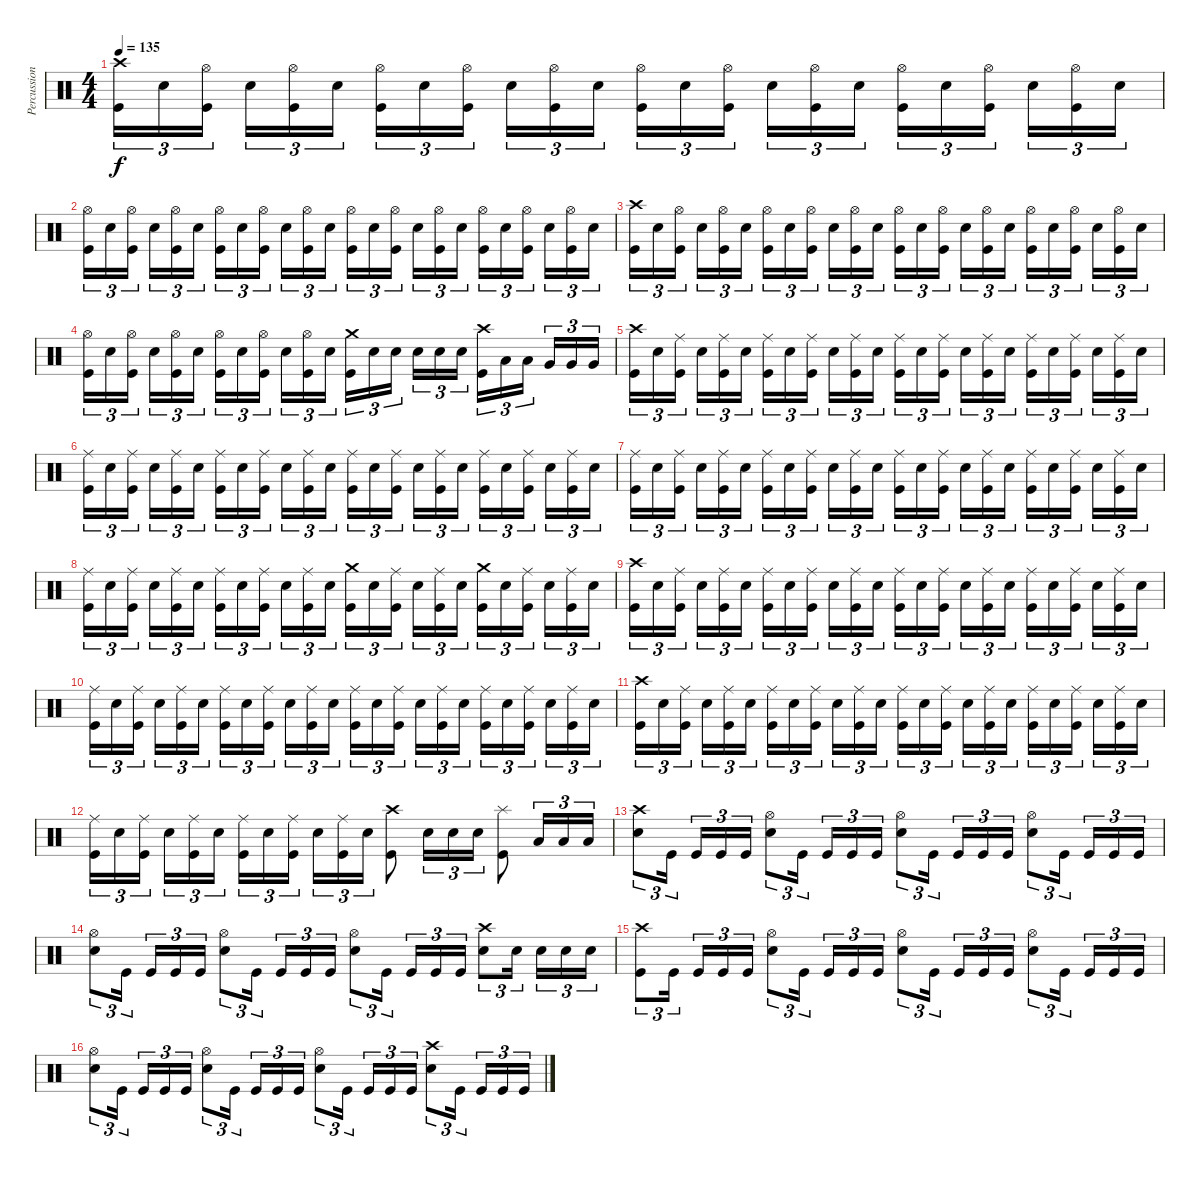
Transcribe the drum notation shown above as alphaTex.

\track ("Percussions" "Percussion") {instrument percussion}
\staff {score}
\articulation defaults
\ts (4 4)
\tempo 135
\clef neutral
\ks c
("Crash high (hit)" "Kick (hit)").16{tu (3 2) dy f} "Electric Snare (hit)".16{tu (3 2)} ("Hi-Hat (open)" "Kick (hit)").16{tu (3 2) beam splitsecondary} "Electric Snare (hit)".16{tu (3 2)} ("Hi-Hat (open)" "Kick (hit)").16{tu (3 2)} "Electric Snare (hit)".16{tu (3 2)} ("Hi-Hat (open)" "Kick (hit)").16{tu (3 2)} "Electric Snare (hit)".16{tu (3 2)} ("Hi-Hat (open)" "Kick (hit)").16{tu (3 2) beam splitsecondary} "Electric Snare (hit)".16{tu (3 2)} ("Hi-Hat (open)" "Kick (hit)").16{tu (3 2)} "Electric Snare (hit)".16{tu (3 2)} ("Hi-Hat (open)" "Kick (hit)").16{tu (3 2)} "Electric Snare (hit)".16{tu (3 2)} ("Hi-Hat (open)" "Kick (hit)").16{tu (3 2) beam splitsecondary} "Electric Snare (hit)".16{tu (3 2)} ("Hi-Hat (open)" "Kick (hit)").16{tu (3 2)} "Electric Snare (hit)".16{tu (3 2)} ("Hi-Hat (open)" "Kick (hit)").16{tu (3 2)} "Electric Snare (hit)".16{tu (3 2)} ("Hi-Hat (open)" "Kick (hit)").16{tu (3 2) beam splitsecondary} "Electric Snare (hit)".16{tu (3 2)} ("Hi-Hat (open)" "Kick (hit)").16{tu (3 2)} "Electric Snare (hit)".16{tu (3 2)} |
("Hi-Hat (open)" "Kick (hit)").16{tu (3 2)} "Electric Snare (hit)".16{tu (3 2)} ("Hi-Hat (open)" "Kick (hit)").16{tu (3 2) beam splitsecondary} "Electric Snare (hit)".16{tu (3 2)} ("Hi-Hat (open)" "Kick (hit)").16{tu (3 2)} "Electric Snare (hit)".16{tu (3 2)} ("Hi-Hat (open)" "Kick (hit)").16{tu (3 2)} "Electric Snare (hit)".16{tu (3 2)} ("Hi-Hat (open)" "Kick (hit)").16{tu (3 2) beam splitsecondary} "Electric Snare (hit)".16{tu (3 2)} ("Hi-Hat (open)" "Kick (hit)").16{tu (3 2)} "Electric Snare (hit)".16{tu (3 2)} ("Hi-Hat (open)" "Kick (hit)").16{tu (3 2)} "Electric Snare (hit)".16{tu (3 2)} ("Hi-Hat (open)" "Kick (hit)").16{tu (3 2) beam splitsecondary} "Electric Snare (hit)".16{tu (3 2)} ("Hi-Hat (open)" "Kick (hit)").16{tu (3 2)} "Electric Snare (hit)".16{tu (3 2)} ("Hi-Hat (open)" "Kick (hit)").16{tu (3 2)} "Electric Snare (hit)".16{tu (3 2)} ("Hi-Hat (open)" "Kick (hit)").16{tu (3 2) beam splitsecondary} "Electric Snare (hit)".16{tu (3 2)} ("Hi-Hat (open)" "Kick (hit)").16{tu (3 2)} "Electric Snare (hit)".16{tu (3 2)} |
("Crash high (hit)" "Kick (hit)").16{tu (3 2)} "Electric Snare (hit)".16{tu (3 2)} ("Hi-Hat (open)" "Kick (hit)").16{tu (3 2) beam splitsecondary} "Electric Snare (hit)".16{tu (3 2)} ("Hi-Hat (open)" "Kick (hit)").16{tu (3 2)} "Electric Snare (hit)".16{tu (3 2)} ("Hi-Hat (open)" "Kick (hit)").16{tu (3 2)} "Electric Snare (hit)".16{tu (3 2)} ("Hi-Hat (open)" "Kick (hit)").16{tu (3 2) beam splitsecondary} "Electric Snare (hit)".16{tu (3 2)} ("Hi-Hat (open)" "Kick (hit)").16{tu (3 2)} "Electric Snare (hit)".16{tu (3 2)} ("Hi-Hat (open)" "Kick (hit)").16{tu (3 2)} "Electric Snare (hit)".16{tu (3 2)} ("Hi-Hat (open)" "Kick (hit)").16{tu (3 2) beam splitsecondary} "Electric Snare (hit)".16{tu (3 2)} ("Hi-Hat (open)" "Kick (hit)").16{tu (3 2)} "Electric Snare (hit)".16{tu (3 2)} ("Hi-Hat (open)" "Kick (hit)").16{tu (3 2)} "Electric Snare (hit)".16{tu (3 2)} ("Hi-Hat (open)" "Kick (hit)").16{tu (3 2) beam splitsecondary} "Electric Snare (hit)".16{tu (3 2)} ("Hi-Hat (open)" "Kick (hit)").16{tu (3 2)} "Electric Snare (hit)".16{tu (3 2)} |
("Hi-Hat (open)" "Kick (hit)").16{tu (3 2)} "Electric Snare (hit)".16{tu (3 2)} ("Hi-Hat (open)" "Kick (hit)").16{tu (3 2) beam splitsecondary} "Electric Snare (hit)".16{tu (3 2)} ("Hi-Hat (open)" "Kick (hit)").16{tu (3 2)} "Electric Snare (hit)".16{tu (3 2)} ("Hi-Hat (open)" "Kick (hit)").16{tu (3 2)} "Electric Snare (hit)".16{tu (3 2)} ("Hi-Hat (open)" "Kick (hit)").16{tu (3 2) beam splitsecondary} "Electric Snare (hit)".16{tu (3 2)} ("Hi-Hat (open)" "Kick (hit)").16{tu (3 2)} "Electric Snare (hit)".16{tu (3 2)} ("Crash medium (hit)" "Kick (hit)").16{tu (3 2)} "Electric Snare (hit)".16{tu (3 2)} "Electric Snare (hit)".16{tu (3 2) beam splitsecondary} "Electric Snare (hit)".16{tu (3 2)} "Electric Snare (hit)".16{tu (3 2)} "Electric Snare (hit)".16{tu (3 2)} ("Crash high (hit)" "Kick (hit)").16{tu (3 2)} "Low Tom (hit)".16{tu (3 2)} "Low Tom (hit)".16{tu (3 2) beam splitsecondary} "Very Low Tom (hit)".16{tu (3 2)} "Very Low Tom (hit)".16{tu (3 2)} "Very Low Tom (hit)".16{tu (3 2)} |
("Crash high (hit)" "Kick (hit)").16{tu (3 2)} "Electric Snare (hit)".16{tu (3 2)} ("Ride (middle)" "Kick (hit)").16{tu (3 2) beam splitsecondary} "Electric Snare (hit)".16{tu (3 2)} ("Ride (middle)" "Kick (hit)").16{tu (3 2)} "Electric Snare (hit)".16{tu (3 2)} ("Ride (middle)" "Kick (hit)").16{tu (3 2)} "Electric Snare (hit)".16{tu (3 2)} ("Ride (middle)" "Kick (hit)").16{tu (3 2) beam splitsecondary} "Electric Snare (hit)".16{tu (3 2)} ("Ride (middle)" "Kick (hit)").16{tu (3 2)} "Electric Snare (hit)".16{tu (3 2)} ("Ride (middle)" "Kick (hit)").16{tu (3 2)} "Electric Snare (hit)".16{tu (3 2)} ("Ride (middle)" "Kick (hit)").16{tu (3 2) beam splitsecondary} "Electric Snare (hit)".16{tu (3 2)} ("Ride (middle)" "Kick (hit)").16{tu (3 2)} "Electric Snare (hit)".16{tu (3 2)} ("Ride (middle)" "Kick (hit)").16{tu (3 2)} "Electric Snare (hit)".16{tu (3 2)} ("Ride (middle)" "Kick (hit)").16{tu (3 2) beam splitsecondary} "Electric Snare (hit)".16{tu (3 2)} ("Ride (middle)" "Kick (hit)").16{tu (3 2)} "Electric Snare (hit)".16{tu (3 2)} |
("Ride (middle)" "Kick (hit)").16{tu (3 2)} "Electric Snare (hit)".16{tu (3 2)} ("Ride (middle)" "Kick (hit)").16{tu (3 2) beam splitsecondary} "Electric Snare (hit)".16{tu (3 2)} ("Ride (middle)" "Kick (hit)").16{tu (3 2)} "Electric Snare (hit)".16{tu (3 2)} ("Ride (middle)" "Kick (hit)").16{tu (3 2)} "Electric Snare (hit)".16{tu (3 2)} ("Ride (middle)" "Kick (hit)").16{tu (3 2) beam splitsecondary} "Electric Snare (hit)".16{tu (3 2)} ("Ride (middle)" "Kick (hit)").16{tu (3 2)} "Electric Snare (hit)".16{tu (3 2)} ("Ride (middle)" "Kick (hit)").16{tu (3 2)} "Electric Snare (hit)".16{tu (3 2)} ("Ride (middle)" "Kick (hit)").16{tu (3 2) beam splitsecondary} "Electric Snare (hit)".16{tu (3 2)} ("Ride (middle)" "Kick (hit)").16{tu (3 2)} "Electric Snare (hit)".16{tu (3 2)} ("Ride (middle)" "Kick (hit)").16{tu (3 2)} "Electric Snare (hit)".16{tu (3 2)} ("Ride (middle)" "Kick (hit)").16{tu (3 2) beam splitsecondary} "Electric Snare (hit)".16{tu (3 2)} ("Ride (middle)" "Kick (hit)").16{tu (3 2)} "Electric Snare (hit)".16{tu (3 2)} |
("Ride (middle)" "Kick (hit)").16{tu (3 2)} "Electric Snare (hit)".16{tu (3 2)} ("Ride (middle)" "Kick (hit)").16{tu (3 2) beam splitsecondary} "Electric Snare (hit)".16{tu (3 2)} ("Ride (middle)" "Kick (hit)").16{tu (3 2)} "Electric Snare (hit)".16{tu (3 2)} ("Ride (middle)" "Kick (hit)").16{tu (3 2)} "Electric Snare (hit)".16{tu (3 2)} ("Ride (middle)" "Kick (hit)").16{tu (3 2) beam splitsecondary} "Electric Snare (hit)".16{tu (3 2)} ("Ride (middle)" "Kick (hit)").16{tu (3 2)} "Electric Snare (hit)".16{tu (3 2)} ("Ride (middle)" "Kick (hit)").16{tu (3 2)} "Electric Snare (hit)".16{tu (3 2)} ("Ride (middle)" "Kick (hit)").16{tu (3 2) beam splitsecondary} "Electric Snare (hit)".16{tu (3 2)} ("Ride (middle)" "Kick (hit)").16{tu (3 2)} "Electric Snare (hit)".16{tu (3 2)} ("Ride (middle)" "Kick (hit)").16{tu (3 2)} "Electric Snare (hit)".16{tu (3 2)} ("Ride (middle)" "Kick (hit)").16{tu (3 2) beam splitsecondary} "Electric Snare (hit)".16{tu (3 2)} ("Ride (middle)" "Kick (hit)").16{tu (3 2)} "Electric Snare (hit)".16{tu (3 2)} |
("Ride (middle)" "Kick (hit)").16{tu (3 2)} "Electric Snare (hit)".16{tu (3 2)} ("Ride (middle)" "Kick (hit)").16{tu (3 2) beam splitsecondary} "Electric Snare (hit)".16{tu (3 2)} ("Ride (middle)" "Kick (hit)").16{tu (3 2)} "Electric Snare (hit)".16{tu (3 2)} ("Ride (middle)" "Kick (hit)").16{tu (3 2)} "Electric Snare (hit)".16{tu (3 2)} ("Ride (middle)" "Kick (hit)").16{tu (3 2) beam splitsecondary} "Electric Snare (hit)".16{tu (3 2)} ("Ride (middle)" "Kick (hit)").16{tu (3 2)} "Electric Snare (hit)".16{tu (3 2)} ("Crash medium (hit)" "Kick (hit)").16{tu (3 2)} "Electric Snare (hit)".16{tu (3 2)} ("Ride (middle)" "Kick (hit)").16{tu (3 2) beam splitsecondary} "Electric Snare (hit)".16{tu (3 2)} ("Ride (middle)" "Kick (hit)").16{tu (3 2)} "Electric Snare (hit)".16{tu (3 2)} ("Crash medium (hit)" "Kick (hit)").16{tu (3 2)} "Electric Snare (hit)".16{tu (3 2)} ("Ride (middle)" "Kick (hit)").16{tu (3 2) beam splitsecondary} "Electric Snare (hit)".16{tu (3 2)} ("Ride (middle)" "Kick (hit)").16{tu (3 2)} "Electric Snare (hit)".16{tu (3 2)} |
("Crash high (hit)" "Kick (hit)").16{tu (3 2)} "Electric Snare (hit)".16{tu (3 2)} ("Ride (middle)" "Kick (hit)").16{tu (3 2) beam splitsecondary} "Electric Snare (hit)".16{tu (3 2)} ("Ride (middle)" "Kick (hit)").16{tu (3 2)} "Electric Snare (hit)".16{tu (3 2)} ("Ride (middle)" "Kick (hit)").16{tu (3 2)} "Electric Snare (hit)".16{tu (3 2)} ("Ride (middle)" "Kick (hit)").16{tu (3 2) beam splitsecondary} "Electric Snare (hit)".16{tu (3 2)} ("Ride (middle)" "Kick (hit)").16{tu (3 2)} "Electric Snare (hit)".16{tu (3 2)} ("Ride (middle)" "Kick (hit)").16{tu (3 2)} "Electric Snare (hit)".16{tu (3 2)} ("Ride (middle)" "Kick (hit)").16{tu (3 2) beam splitsecondary} "Electric Snare (hit)".16{tu (3 2)} ("Ride (middle)" "Kick (hit)").16{tu (3 2)} "Electric Snare (hit)".16{tu (3 2)} ("Ride (middle)" "Kick (hit)").16{tu (3 2)} "Electric Snare (hit)".16{tu (3 2)} ("Ride (middle)" "Kick (hit)").16{tu (3 2) beam splitsecondary} "Electric Snare (hit)".16{tu (3 2)} ("Ride (middle)" "Kick (hit)").16{tu (3 2)} "Electric Snare (hit)".16{tu (3 2)} |
("Ride (middle)" "Kick (hit)").16{tu (3 2)} "Electric Snare (hit)".16{tu (3 2)} ("Ride (middle)" "Kick (hit)").16{tu (3 2) beam splitsecondary} "Electric Snare (hit)".16{tu (3 2)} ("Ride (middle)" "Kick (hit)").16{tu (3 2)} "Electric Snare (hit)".16{tu (3 2)} ("Ride (middle)" "Kick (hit)").16{tu (3 2)} "Electric Snare (hit)".16{tu (3 2)} ("Ride (middle)" "Kick (hit)").16{tu (3 2) beam splitsecondary} "Electric Snare (hit)".16{tu (3 2)} ("Ride (middle)" "Kick (hit)").16{tu (3 2)} "Electric Snare (hit)".16{tu (3 2)} ("Ride (middle)" "Kick (hit)").16{tu (3 2)} "Electric Snare (hit)".16{tu (3 2)} ("Ride (middle)" "Kick (hit)").16{tu (3 2) beam splitsecondary} "Electric Snare (hit)".16{tu (3 2)} ("Ride (middle)" "Kick (hit)").16{tu (3 2)} "Electric Snare (hit)".16{tu (3 2)} ("Ride (middle)" "Kick (hit)").16{tu (3 2)} "Electric Snare (hit)".16{tu (3 2)} ("Ride (middle)" "Kick (hit)").16{tu (3 2) beam splitsecondary} "Electric Snare (hit)".16{tu (3 2)} ("Ride (middle)" "Kick (hit)").16{tu (3 2)} "Electric Snare (hit)".16{tu (3 2)} |
("Crash high (hit)" "Kick (hit)").16{tu (3 2)} "Electric Snare (hit)".16{tu (3 2)} ("Ride (middle)" "Kick (hit)").16{tu (3 2) beam splitsecondary} "Electric Snare (hit)".16{tu (3 2)} ("Ride (middle)" "Kick (hit)").16{tu (3 2)} "Electric Snare (hit)".16{tu (3 2)} ("Ride (middle)" "Kick (hit)").16{tu (3 2)} "Electric Snare (hit)".16{tu (3 2)} ("Ride (middle)" "Kick (hit)").16{tu (3 2) beam splitsecondary} "Electric Snare (hit)".16{tu (3 2)} ("Ride (middle)" "Kick (hit)").16{tu (3 2)} "Electric Snare (hit)".16{tu (3 2)} ("Ride (middle)" "Kick (hit)").16{tu (3 2)} "Electric Snare (hit)".16{tu (3 2)} ("Ride (middle)" "Kick (hit)").16{tu (3 2) beam splitsecondary} "Electric Snare (hit)".16{tu (3 2)} ("Ride (middle)" "Kick (hit)").16{tu (3 2)} "Electric Snare (hit)".16{tu (3 2)} ("Ride (middle)" "Kick (hit)").16{tu (3 2)} "Electric Snare (hit)".16{tu (3 2)} ("Ride (middle)" "Kick (hit)").16{tu (3 2) beam splitsecondary} "Electric Snare (hit)".16{tu (3 2)} ("Ride (middle)" "Kick (hit)").16{tu (3 2)} "Electric Snare (hit)".16{tu (3 2)} |
("Ride (middle)" "Kick (hit)").16{tu (3 2)} "Electric Snare (hit)".16{tu (3 2)} ("Ride (middle)" "Kick (hit)").16{tu (3 2) beam splitsecondary} "Electric Snare (hit)".16{tu (3 2)} ("Ride (middle)" "Kick (hit)").16{tu (3 2)} "Electric Snare (hit)".16{tu (3 2)} ("Ride (middle)" "Kick (hit)").16{tu (3 2)} "Electric Snare (hit)".16{tu (3 2)} ("Ride (middle)" "Kick (hit)").16{tu (3 2) beam splitsecondary} "Electric Snare (hit)".16{tu (3 2)} ("Ride (middle)" "Kick (hit)").16{tu (3 2)} "Electric Snare (hit)".16{tu (3 2)} ("Crash high (hit)" "Kick (hit)").8 "Electric Snare (hit)".16{tu (3 2)} "Electric Snare (hit)".16{tu (3 2)} "Electric Snare (hit)".16{tu (3 2)} ("Splash (hit)" "Kick (hit)").8 "Low Tom (hit)".16{tu (3 2)} "Low Tom (hit)".16{tu (3 2)} "Low Tom (hit)".16{tu (3 2)} |
("Crash high (hit)" "Electric Snare (hit)").8{tu (3 2)} "Kick (hit)".16{tu (3 2) beam splitsecondary} "Kick (hit)".16{tu (3 2)} "Kick (hit)".16{tu (3 2)} "Kick (hit)".16{tu (3 2)} ("Hi-Hat (open)" "Electric Snare (hit)").8{tu (3 2)} "Kick (hit)".16{tu (3 2) beam splitsecondary} "Kick (hit)".16{tu (3 2)} "Kick (hit)".16{tu (3 2)} "Kick (hit)".16{tu (3 2)} ("Hi-Hat (open)" "Electric Snare (hit)").8{tu (3 2)} "Kick (hit)".16{tu (3 2) beam splitsecondary} "Kick (hit)".16{tu (3 2)} "Kick (hit)".16{tu (3 2)} "Kick (hit)".16{tu (3 2)} ("Hi-Hat (open)" "Electric Snare (hit)").8{tu (3 2)} "Kick (hit)".16{tu (3 2) beam splitsecondary} "Kick (hit)".16{tu (3 2)} "Kick (hit)".16{tu (3 2)} "Kick (hit)".16{tu (3 2)} |
("Hi-Hat (open)" "Electric Snare (hit)").8{tu (3 2)} "Kick (hit)".16{tu (3 2) beam splitsecondary} "Kick (hit)".16{tu (3 2)} "Kick (hit)".16{tu (3 2)} "Kick (hit)".16{tu (3 2)} ("Hi-Hat (open)" "Electric Snare (hit)").8{tu (3 2)} "Kick (hit)".16{tu (3 2) beam splitsecondary} "Kick (hit)".16{tu (3 2)} "Kick (hit)".16{tu (3 2)} "Kick (hit)".16{tu (3 2)} ("Hi-Hat (open)" "Electric Snare (hit)").8{tu (3 2)} "Kick (hit)".16{tu (3 2) beam splitsecondary} "Kick (hit)".16{tu (3 2)} "Kick (hit)".16{tu (3 2)} "Kick (hit)".16{tu (3 2)} ("Crash high (hit)" "Electric Snare (hit)").8{tu (3 2)} "Electric Snare (hit)".16{tu (3 2) beam splitsecondary} "Electric Snare (hit)".16{tu (3 2)} "Electric Snare (hit)".16{tu (3 2)} "Electric Snare (hit)".16{tu (3 2)} |
("Crash high (hit)" "Kick (hit)").8{tu (3 2)} "Kick (hit)".16{tu (3 2) beam splitsecondary} "Kick (hit)".16{tu (3 2)} "Kick (hit)".16{tu (3 2)} "Kick (hit)".16{tu (3 2)} ("Hi-Hat (open)" "Electric Snare (hit)").8{tu (3 2)} "Kick (hit)".16{tu (3 2) beam splitsecondary} "Kick (hit)".16{tu (3 2)} "Kick (hit)".16{tu (3 2)} "Kick (hit)".16{tu (3 2)} ("Hi-Hat (open)" "Electric Snare (hit)").8{tu (3 2)} "Kick (hit)".16{tu (3 2) beam splitsecondary} "Kick (hit)".16{tu (3 2)} "Kick (hit)".16{tu (3 2)} "Kick (hit)".16{tu (3 2)} ("Hi-Hat (open)" "Electric Snare (hit)").8{tu (3 2)} "Kick (hit)".16{tu (3 2) beam splitsecondary} "Kick (hit)".16{tu (3 2)} "Kick (hit)".16{tu (3 2)} "Kick (hit)".16{tu (3 2)} |
("Hi-Hat (open)" "Electric Snare (hit)").8{tu (3 2)} "Kick (hit)".16{tu (3 2) beam splitsecondary} "Kick (hit)".16{tu (3 2)} "Kick (hit)".16{tu (3 2)} "Kick (hit)".16{tu (3 2)} ("Hi-Hat (open)" "Electric Snare (hit)").8{tu (3 2)} "Kick (hit)".16{tu (3 2) beam splitsecondary} "Kick (hit)".16{tu (3 2)} "Kick (hit)".16{tu (3 2)} "Kick (hit)".16{tu (3 2)} ("Hi-Hat (open)" "Electric Snare (hit)").8{tu (3 2)} "Kick (hit)".16{tu (3 2) beam splitsecondary} "Kick (hit)".16{tu (3 2)} "Kick (hit)".16{tu (3 2)} "Kick (hit)".16{tu (3 2)} ("Crash high (hit)" "Electric Snare (hit)").8{tu (3 2)} "Kick (hit)".16{tu (3 2) beam splitsecondary} "Kick (hit)".16{tu (3 2)} "Kick (hit)".16{tu (3 2)} "Kick (hit)".16{tu (3 2)}
